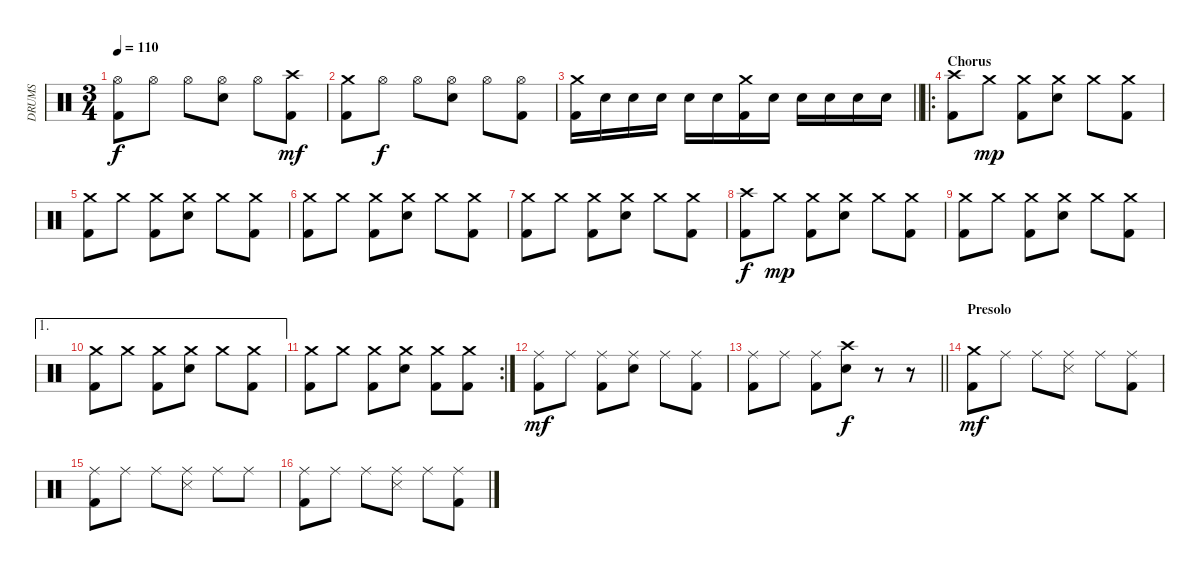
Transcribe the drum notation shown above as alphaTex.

\track ("DRUMS" "DRUMS") {instrument percussion}
\staff {score}
\articulation defaults
\ts (3 4)
\tempo 110
\clef neutral
\ks c
("Hi-Hat (open)" "Kick (hit) 2").8{dy f} "Hi-Hat (open)".8 "Hi-Hat (open)".8 ("Hi-Hat (open)" "Snare (hit) 2").8 "Hi-Hat (open)".8 ("Crash high (hit)" "Kick (hit) 2").8{dy mf} |
("Crash medium (hit)" "Kick (hit) 2").8 "Hi-Hat (open)".8{dy f} "Hi-Hat (open)".8 ("Hi-Hat (open)" "Snare (hit) 2").8 "Hi-Hat (open)".8 ("Hi-Hat (open)" "Kick (hit) 2").8 |
\barLineRight lightlight
("Crash medium (hit)" "Kick (hit) 2").16 "Snare (hit) 2".16 "Snare (hit) 2".16 "Snare (hit) 2".16 "Snare (hit) 2".16 "Snare (hit) 2".16 ("Crash medium (hit)" "Kick (hit) 2").16 "Snare (hit) 2".16 "Snare (hit) 2".16 "Snare (hit) 2".16 "Snare (hit) 2".16 "Snare (hit) 2".16 |
\ro
\section ("" "Chorus")
("Crash high (hit)" "Kick (hit) 2").8 "Crash medium (hit)".8{dy mp} ("Crash medium (hit)" "Kick (hit) 2").8 ("Crash medium (hit)" "Snare (hit) 2").8 "Crash medium (hit)".8 ("Crash medium (hit)" "Kick (hit) 2").8 |
("Crash medium (hit)" "Kick (hit) 2").8 "Crash medium (hit)".8 ("Crash medium (hit)" "Kick (hit) 2").8 ("Crash medium (hit)" "Snare (hit) 2").8 "Crash medium (hit)".8 ("Crash medium (hit)" "Kick (hit) 2").8 |
("Crash medium (hit)" "Kick (hit) 2").8 "Crash medium (hit)".8 ("Crash medium (hit)" "Kick (hit) 2").8 ("Crash medium (hit)" "Snare (hit) 2").8 "Crash medium (hit)".8 ("Crash medium (hit)" "Kick (hit) 2").8 |
("Crash medium (hit)" "Kick (hit) 2").8 "Crash medium (hit)".8 ("Crash medium (hit)" "Kick (hit) 2").8 ("Crash medium (hit)" "Snare (hit) 2").8 "Crash medium (hit)".8 ("Crash medium (hit)" "Kick (hit) 2").8 |
("Crash high (hit)" "Kick (hit) 2").8{dy f} "Crash medium (hit)".8{dy mp} ("Crash medium (hit)" "Kick (hit) 2").8 ("Crash medium (hit)" "Snare (hit) 2").8 "Crash medium (hit)".8 ("Crash medium (hit)" "Kick (hit) 2").8 |
("Crash medium (hit)" "Kick (hit) 2").8 "Crash medium (hit)".8 ("Crash medium (hit)" "Kick (hit) 2").8 ("Crash medium (hit)" "Snare (hit) 2").8 "Crash medium (hit)".8 ("Crash medium (hit)" "Kick (hit) 2").8 |
\ae 1
("Crash medium (hit)" "Kick (hit) 2").8 "Crash medium (hit)".8 ("Crash medium (hit)" "Kick (hit) 2").8 ("Crash medium (hit)" "Snare (hit) 2").8 "Crash medium (hit)".8 ("Crash medium (hit)" "Kick (hit) 2").8 |
\rc 2
("Crash medium (hit)" "Kick (hit) 2").8 "Crash medium (hit)".8 ("Crash medium (hit)" "Kick (hit) 2").8 ("Crash medium (hit)" "Snare (hit) 2").8 ("Crash medium (hit)" "Kick (hit) 2").8 ("Crash medium (hit)" "Kick (hit) 2").8 |
("Ride (middle)" "Kick (hit) 2").8{dy mf} "Ride (middle)".8 ("Ride (middle)" "Kick (hit) 2").8 ("Ride (middle)" "Snare (hit) 2").8 "Ride (middle)".8 ("Ride (middle)" "Kick (hit) 2").8 |
\barLineRight lightlight
("Ride (middle)" "Kick (hit) 2").8 "Ride (middle)".8 ("Ride (middle)" "Kick (hit) 2").8 ("Crash high (hit)" "Snare (hit) 2").8{dy f} r.8 r.8 |
\section ("" "Presolo")
("Crash medium (hit)" "Kick (hit) 2").8{dy mf volume 6} "Ride (middle)".8 "Ride (middle)".8 ("Ride (middle)" "Snare (side stick) 3").8 "Ride (middle)".8 ("Ride (middle)" "Kick (hit) 2").8 |
("Ride (middle)" "Kick (hit) 2").8 "Ride (middle)".8 "Ride (middle)".8 ("Ride (middle)" "Snare (side stick) 3").8 "Ride (middle)".8 "Ride (middle)".8 |
("Ride (middle)" "Kick (hit) 2").8 "Ride (middle)".8 "Ride (middle)".8 ("Ride (middle)" "Snare (side stick) 3").8 "Ride (middle)".8 ("Ride (middle)" "Kick (hit) 2").8
